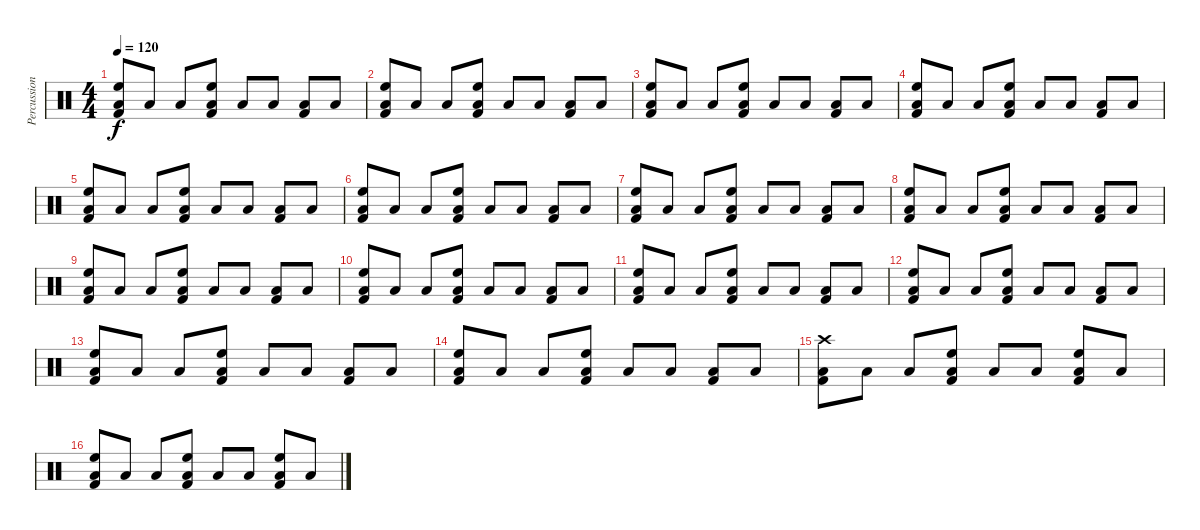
\track ("Percussion" "Percussion") {instrument percussion}
\staff {score}
\articulation defaults
\ts (4 4)
\tempo 120
\clef neutral
\ks c
("Low Floor Tom (hit)" "High Floor Tom (hit)" "Kick (hit) 2").8{dy f} "Low Floor Tom (hit)".8 "Low Floor Tom (hit)".8 ("Low Floor Tom (hit)" "High Floor Tom (hit)" "Kick (hit) 2").8 "Low Floor Tom (hit)".8 "Low Floor Tom (hit)".8 ("Low Floor Tom (hit)" "Kick (hit) 2").8 "Low Floor Tom (hit)".8 |
("Low Floor Tom (hit)" "High Floor Tom (hit)" "Kick (hit) 2").8 "Low Floor Tom (hit)".8 "Low Floor Tom (hit)".8 ("Low Floor Tom (hit)" "High Floor Tom (hit)" "Kick (hit) 2").8 "Low Floor Tom (hit)".8 "Low Floor Tom (hit)".8 ("Low Floor Tom (hit)" "Kick (hit) 2").8 "Low Floor Tom (hit)".8 |
("Low Floor Tom (hit)" "High Floor Tom (hit)" "Kick (hit) 2").8 "Low Floor Tom (hit)".8 "Low Floor Tom (hit)".8 ("Low Floor Tom (hit)" "High Floor Tom (hit)" "Kick (hit) 2").8 "Low Floor Tom (hit)".8 "Low Floor Tom (hit)".8 ("Low Floor Tom (hit)" "Kick (hit) 2").8 "Low Floor Tom (hit)".8 |
("Low Floor Tom (hit)" "High Floor Tom (hit)" "Kick (hit) 2").8 "Low Floor Tom (hit)".8 "Low Floor Tom (hit)".8 ("Low Floor Tom (hit)" "High Floor Tom (hit)" "Kick (hit) 2").8 "Low Floor Tom (hit)".8 "Low Floor Tom (hit)".8 ("Low Floor Tom (hit)" "Kick (hit) 2").8 "Low Floor Tom (hit)".8 |
("Low Floor Tom (hit)" "High Floor Tom (hit)" "Kick (hit) 2").8 "Low Floor Tom (hit)".8 "Low Floor Tom (hit)".8 ("Low Floor Tom (hit)" "High Floor Tom (hit)" "Kick (hit) 2").8 "Low Floor Tom (hit)".8 "Low Floor Tom (hit)".8 ("Low Floor Tom (hit)" "Kick (hit) 2").8 "Low Floor Tom (hit)".8 |
("Low Floor Tom (hit)" "High Floor Tom (hit)" "Kick (hit) 2").8 "Low Floor Tom (hit)".8 "Low Floor Tom (hit)".8 ("Low Floor Tom (hit)" "High Floor Tom (hit)" "Kick (hit) 2").8 "Low Floor Tom (hit)".8 "Low Floor Tom (hit)".8 ("Low Floor Tom (hit)" "Kick (hit) 2").8 "Low Floor Tom (hit)".8 |
("Low Floor Tom (hit)" "High Floor Tom (hit)" "Kick (hit) 2").8 "Low Floor Tom (hit)".8 "Low Floor Tom (hit)".8 ("Low Floor Tom (hit)" "High Floor Tom (hit)" "Kick (hit) 2").8 "Low Floor Tom (hit)".8 "Low Floor Tom (hit)".8 ("Low Floor Tom (hit)" "Kick (hit) 2").8 "Low Floor Tom (hit)".8 |
("Low Floor Tom (hit)" "High Floor Tom (hit)" "Kick (hit) 2").8 "Low Floor Tom (hit)".8 "Low Floor Tom (hit)".8 ("Low Floor Tom (hit)" "High Floor Tom (hit)" "Kick (hit) 2").8 "Low Floor Tom (hit)".8 "Low Floor Tom (hit)".8 ("Low Floor Tom (hit)" "Kick (hit) 2").8 "Low Floor Tom (hit)".8 |
("Low Floor Tom (hit)" "High Floor Tom (hit)" "Kick (hit) 2").8 "Low Floor Tom (hit)".8 "Low Floor Tom (hit)".8 ("Low Floor Tom (hit)" "High Floor Tom (hit)" "Kick (hit) 2").8 "Low Floor Tom (hit)".8 "Low Floor Tom (hit)".8 ("Low Floor Tom (hit)" "Kick (hit) 2").8 "Low Floor Tom (hit)".8 |
("Low Floor Tom (hit)" "High Floor Tom (hit)" "Kick (hit) 2").8 "Low Floor Tom (hit)".8 "Low Floor Tom (hit)".8 ("Low Floor Tom (hit)" "High Floor Tom (hit)" "Kick (hit) 2").8 "Low Floor Tom (hit)".8 "Low Floor Tom (hit)".8 ("Low Floor Tom (hit)" "Kick (hit) 2").8 "Low Floor Tom (hit)".8 |
("Low Floor Tom (hit)" "High Floor Tom (hit)" "Kick (hit) 2").8 "Low Floor Tom (hit)".8 "Low Floor Tom (hit)".8 ("Low Floor Tom (hit)" "High Floor Tom (hit)" "Kick (hit) 2").8 "Low Floor Tom (hit)".8 "Low Floor Tom (hit)".8 ("Low Floor Tom (hit)" "Kick (hit) 2").8 "Low Floor Tom (hit)".8 |
("Low Floor Tom (hit)" "High Floor Tom (hit)" "Kick (hit) 2").8 "Low Floor Tom (hit)".8 "Low Floor Tom (hit)".8 ("Low Floor Tom (hit)" "High Floor Tom (hit)" "Kick (hit) 2").8 "Low Floor Tom (hit)".8 "Low Floor Tom (hit)".8 ("Low Floor Tom (hit)" "Kick (hit) 2").8 "Low Floor Tom (hit)".8 |
("Low Floor Tom (hit)" "High Floor Tom (hit)" "Kick (hit) 2").8 "Low Floor Tom (hit)".8 "Low Floor Tom (hit)".8 ("Low Floor Tom (hit)" "High Floor Tom (hit)" "Kick (hit) 2").8 "Low Floor Tom (hit)".8 "Low Floor Tom (hit)".8 ("Low Floor Tom (hit)" "Kick (hit) 2").8 "Low Floor Tom (hit)".8 |
("Low Floor Tom (hit)" "High Floor Tom (hit)" "Kick (hit) 2").8 "Low Floor Tom (hit)".8 "Low Floor Tom (hit)".8 ("Low Floor Tom (hit)" "High Floor Tom (hit)" "Kick (hit) 2").8 "Low Floor Tom (hit)".8 "Low Floor Tom (hit)".8 ("Low Floor Tom (hit)" "Kick (hit) 2").8 "Low Floor Tom (hit)".8 |
("Low Floor Tom (hit)" "Crash high (hit)" "Kick (hit) 2").8 "Low Floor Tom (hit)".8 "Low Floor Tom (hit)".8 ("Low Floor Tom (hit)" "High Floor Tom (hit)" "Kick (hit) 2").8 "Low Floor Tom (hit)".8 "Low Floor Tom (hit)".8 ("Low Floor Tom (hit)" "High Floor Tom (hit)" "Kick (hit) 2").8 "Low Floor Tom (hit)".8 |
("Low Floor Tom (hit)" "High Floor Tom (hit)" "Kick (hit) 2").8 "Low Floor Tom (hit)".8 "Low Floor Tom (hit)".8 ("Low Floor Tom (hit)" "High Floor Tom (hit)" "Kick (hit) 2").8 "Low Floor Tom (hit)".8 "Low Floor Tom (hit)".8 ("Low Floor Tom (hit)" "High Floor Tom (hit)" "Kick (hit) 2").8 "Low Floor Tom (hit)".8
